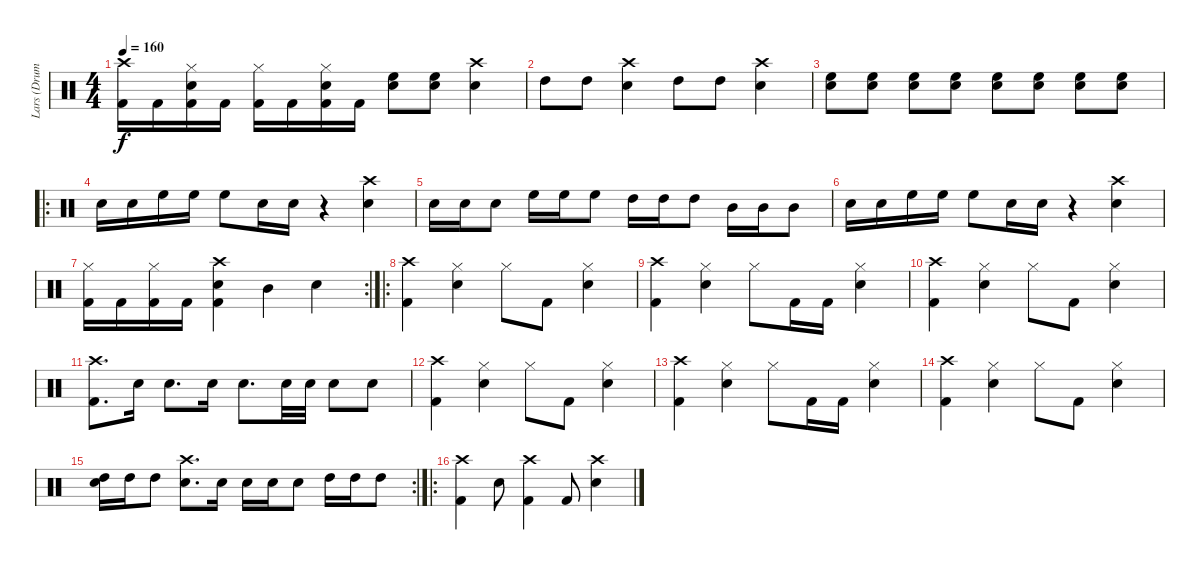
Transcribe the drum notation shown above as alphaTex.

\track ("Lars (Drums)" "Lars (Drum") {instrument percussion}
\staff {score}
\articulation defaults
\ts (4 4)
\tempo 160
\clef neutral
\ks c
("Crash high (hit)" "Kick (hit) 2").16{dy f} "Kick (hit) 2".16 ("Hi-Hat (closed)" "Kick (hit) 2" "Snare (hit) 2").16 "Kick (hit) 2".16 ("Hi-Hat (closed)" "Kick (hit) 2").16 "Kick (hit) 2".16 ("Hi-Hat (closed)" "Kick (hit) 2" "Snare (hit) 2").16 "Kick (hit) 2".16 ("Snare (hit) 2" "High Floor Tom (hit)").8 ("Snare (hit) 2" "High Floor Tom (hit)").8 ("Crash high (hit)" "Snare (hit) 2").4 |
"High Tom (hit)".8 "High Tom (hit)".8 ("Crash high (hit)" "Snare (hit) 2").4 "High Tom (hit)".8 "High Tom (hit)".8 ("Crash high (hit)" "Snare (hit) 2").4 |
("Snare (hit) 2" "High Floor Tom (hit)").8 ("Snare (hit) 2" "High Floor Tom (hit)").8 ("Snare (hit) 2" "High Floor Tom (hit)").8 ("Snare (hit) 2" "High Floor Tom (hit)").8 ("Snare (hit) 2" "High Floor Tom (hit)").8 ("Snare (hit) 2" "High Floor Tom (hit)").8 ("Snare (hit) 2" "High Floor Tom (hit)").8 ("Snare (hit) 2" "High Floor Tom (hit)").8 |
\ro "Snare (hit) 2".16 "Snare (hit) 2".16 "High Floor Tom (hit)".16 "High Floor Tom (hit)".16 "High Floor Tom (hit)".8 "Snare (hit) 2".16 "Snare (hit) 2".16
r.4 ("Crash high (hit)" "Snare (hit) 2").4 |
"Snare (hit) 2".16 "Snare (hit) 2".16 "Snare (hit) 2".8 "High Floor Tom (hit)".16 "High Floor Tom (hit)".16 "High Floor Tom (hit)".8 "High Tom (hit)".16 "High Tom (hit)".16 "High Tom (hit)".8 "Mid Tom (hit)".16 "Mid Tom (hit)".16 "Mid Tom (hit)".8 |
"Snare (hit) 2".16 "Snare (hit) 2".16 "High Floor Tom (hit)".16 "High Floor Tom (hit)".16 "High Floor Tom (hit)".8 "Snare (hit) 2".16 "Snare (hit) 2".16 r.4 ("Crash high (hit)" "Snare (hit) 2").4 |
\rc 2
("Hi-Hat (closed)" "Kick (hit) 2").16 "Kick (hit) 2".16 ("Hi-Hat (closed)" "Kick (hit) 2").16 "Kick (hit) 2".16 ("Crash high (hit)" "Kick (hit) 2" "Snare (hit) 2").4 "Mid Tom (hit)".4 "Snare (hit) 2".4 |
\ro
("Crash high (hit)" "Kick (hit) 2").4 ("Hi-Hat (closed)" "Snare (hit) 2").4 "Hi-Hat (closed)".8 "Kick (hit) 2".8 ("Hi-Hat (closed)" "Snare (hit) 2").4 |
("Crash high (hit)" "Kick (hit) 2").4 ("Hi-Hat (closed)" "Snare (hit) 2").4 "Hi-Hat (closed)".8 "Kick (hit) 2".16 "Kick (hit) 2".16 ("Hi-Hat (closed)" "Snare (hit) 2").4 |
("Crash high (hit)" "Kick (hit) 2").4 ("Hi-Hat (closed)" "Snare (hit) 2").4 "Hi-Hat (closed)".8 "Kick (hit) 2".8 ("Hi-Hat (closed)" "Snare (hit) 2").4 |
("Crash high (hit)" "Kick (hit) 2").8{d} "Snare (hit) 2".16 "Snare (hit) 2".8{d} "Snare (hit) 2".16 "Snare (hit) 2".8{d} "Snare (hit) 2".32 "Snare (hit) 2".32 "Snare (hit) 2".8 "Snare (hit) 2".8 |
("Crash high (hit)" "Kick (hit) 2").4 ("Hi-Hat (closed)" "Snare (hit) 2").4 "Hi-Hat (closed)".8 "Kick (hit) 2".8 ("Hi-Hat (closed)" "Snare (hit) 2").4 |
("Crash high (hit)" "Kick (hit) 2").4 ("Hi-Hat (closed)" "Snare (hit) 2").4 "Hi-Hat (closed)".8 "Kick (hit) 2".16 "Kick (hit) 2".16 ("Hi-Hat (closed)" "Snare (hit) 2").4 |
("Crash high (hit)" "Kick (hit) 2").4 ("Hi-Hat (closed)" "Snare (hit) 2").4 "Hi-Hat (closed)".8 "Kick (hit) 2".8 ("Hi-Hat (closed)" "Snare (hit) 2").4 |
\rc 2
("High Tom (hit)" "Snare (hit) 2").16 "High Tom (hit)".16 "High Tom (hit)".8 ("Crash high (hit)" "Snare (hit) 2").8{d} "Snare (hit) 2".16 "Snare (hit) 2".16 "Snare (hit) 2".16 "Snare (hit) 2".8 "High Tom (hit)".16 "High Tom (hit)".16 "High Tom (hit)".8 |
\ro
("Crash high (hit)" "Kick (hit) 2").4 "Snare (hit) 2".8 ("Crash high (hit)" "Kick (hit) 2").4 "Kick (hit) 2".8 ("Crash high (hit)" "Snare (hit) 2").4
